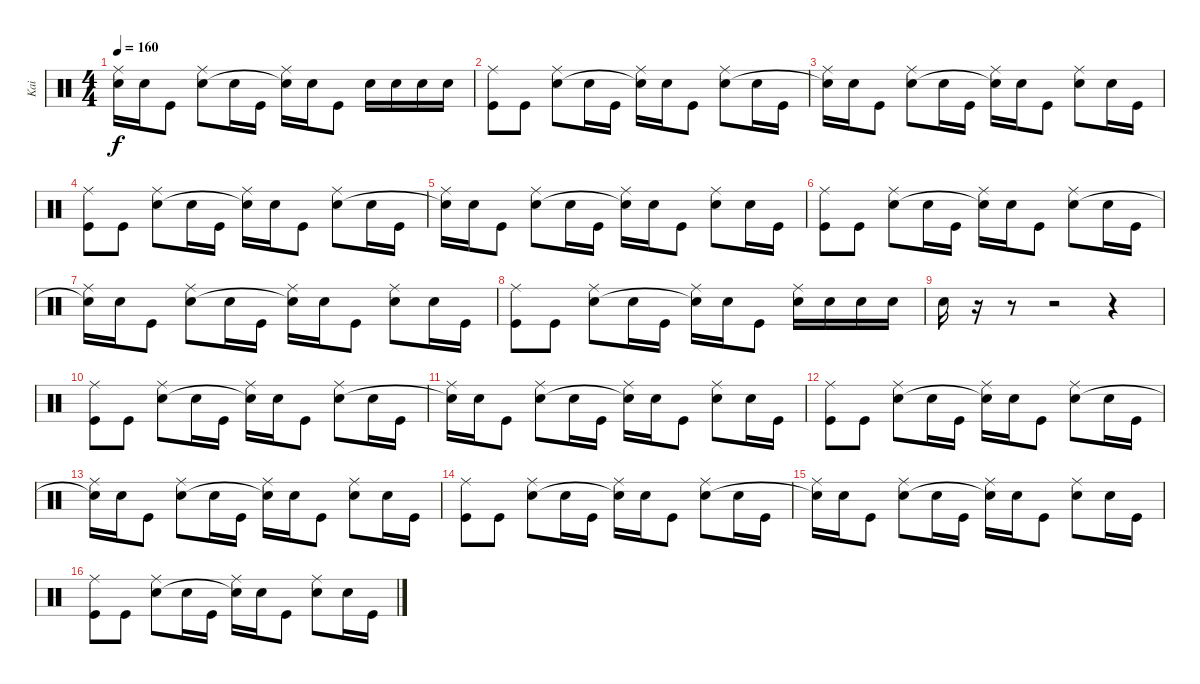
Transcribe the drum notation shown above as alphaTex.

\track ("Kai" "Kai") {instrument percussion}
\staff {score}
\articulation defaults
\ts (4 4)
\tempo 160
\clef neutral
\ks c
("Ride (middle)" "Snare (hit)"{t}).16{dy f} "Snare (hit) 2".16 "Kick (hit)".8 ("Ride (middle)" "Snare (hit) 2").8 "Snare (hit) 2".16 "Kick (hit)".16 ("Ride (middle)" "Snare (hit)"{t}).16 "Snare (hit) 2".16 "Kick (hit)".8 "Snare (hit) 2".16 "Snare (hit) 2".16 "Snare (hit) 2".16 "Snare (hit) 2".16 |
("Ride (middle)" "Kick (hit)").8 "Kick (hit)".8 ("Ride (middle)" "Snare (hit) 2").8 "Snare (hit) 2".16 "Kick (hit)".16 ("Ride (middle)" "Snare (hit)"{t}).16 "Snare (hit) 2".16 "Kick (hit)".8 ("Ride (middle)" "Snare (hit) 2").8 "Snare (hit) 2".16 "Kick (hit)".16 |
("Ride (middle)" "Snare (hit)"{t}).16 "Snare (hit) 2".16 "Kick (hit)".8 ("Ride (middle)" "Snare (hit) 2").8 "Snare (hit) 2".16 "Kick (hit)".16 ("Ride (middle)" "Snare (hit)"{t}).16 "Snare (hit) 2".16 "Kick (hit)".8 ("Ride (middle)" "Snare (hit) 2").8 "Snare (hit) 2".16 "Kick (hit)".16 |
("Ride (middle)" "Kick (hit)").8 "Kick (hit)".8 ("Ride (middle)" "Snare (hit) 2").8 "Snare (hit) 2".16 "Kick (hit)".16 ("Ride (middle)" "Snare (hit)"{t}).16 "Snare (hit) 2".16 "Kick (hit)".8 ("Ride (middle)" "Snare (hit) 2").8 "Snare (hit) 2".16 "Kick (hit)".16 |
("Ride (middle)" "Snare (hit)"{t}).16 "Snare (hit) 2".16 "Kick (hit)".8 ("Ride (middle)" "Snare (hit) 2").8 "Snare (hit) 2".16 "Kick (hit)".16 ("Ride (middle)" "Snare (hit)"{t}).16 "Snare (hit) 2".16 "Kick (hit)".8 ("Ride (middle)" "Snare (hit) 2").8 "Snare (hit) 2".16 "Kick (hit)".16 |
("Ride (middle)" "Kick (hit)").8 "Kick (hit)".8 ("Ride (middle)" "Snare (hit) 2").8 "Snare (hit) 2".16 "Kick (hit)".16 ("Ride (middle)" "Snare (hit)"{t}).16 "Snare (hit) 2".16 "Kick (hit)".8 ("Ride (middle)" "Snare (hit) 2").8 "Snare (hit) 2".16 "Kick (hit)".16 |
("Ride (middle)" "Snare (hit)"{t}).16 "Snare (hit) 2".16 "Kick (hit)".8 ("Ride (middle)" "Snare (hit) 2").8 "Snare (hit) 2".16 "Kick (hit)".16 ("Ride (middle)" "Snare (hit)"{t}).16 "Snare (hit) 2".16 "Kick (hit)".8 ("Ride (middle)" "Snare (hit) 2").8 "Snare (hit) 2".16 "Kick (hit)".16 |
("Ride (middle)" "Kick (hit)").8 "Kick (hit)".8 ("Ride (middle)" "Snare (hit) 2").8 "Snare (hit) 2".16 "Kick (hit)".16 ("Ride (middle)" "Snare (hit)"{t}).16 "Snare (hit) 2".16 "Kick (hit)".8 ("Ride (middle)" "Snare (hit) 2").16 "Snare (hit) 2".16 "Snare (hit) 2".16 "Snare (hit) 2".16 |
"Snare (hit) 2".16 r.16 r.8 r.2 r.4 |
("Ride (middle)" "Kick (hit)").8 "Kick (hit)".8 ("Ride (middle)" "Snare (hit) 2").8 "Snare (hit) 2".16 "Kick (hit)".16 ("Ride (middle)" "Snare (hit)"{t}).16 "Snare (hit) 2".16 "Kick (hit)".8 ("Ride (middle)" "Snare (hit) 2").8 "Snare (hit) 2".16 "Kick (hit)".16 |
("Ride (middle)" "Snare (hit)"{t}).16 "Snare (hit) 2".16 "Kick (hit)".8 ("Ride (middle)" "Snare (hit) 2").8 "Snare (hit) 2".16 "Kick (hit)".16 ("Ride (middle)" "Snare (hit)"{t}).16 "Snare (hit) 2".16 "Kick (hit)".8 ("Ride (middle)" "Snare (hit) 2").8 "Snare (hit) 2".16 "Kick (hit)".16 |
("Ride (middle)" "Kick (hit)").8 "Kick (hit)".8 ("Ride (middle)" "Snare (hit) 2").8 "Snare (hit) 2".16 "Kick (hit)".16 ("Ride (middle)" "Snare (hit)"{t}).16 "Snare (hit) 2".16 "Kick (hit)".8 ("Ride (middle)" "Snare (hit) 2").8 "Snare (hit) 2".16 "Kick (hit)".16 |
("Ride (middle)" "Snare (hit)"{t}).16 "Snare (hit) 2".16 "Kick (hit)".8 ("Ride (middle)" "Snare (hit) 2").8 "Snare (hit) 2".16 "Kick (hit)".16 ("Ride (middle)" "Snare (hit)"{t}).16 "Snare (hit) 2".16 "Kick (hit)".8 ("Ride (middle)" "Snare (hit) 2").8 "Snare (hit) 2".16 "Kick (hit)".16 |
("Ride (middle)" "Kick (hit)").8 "Kick (hit)".8 ("Ride (middle)" "Snare (hit) 2").8 "Snare (hit) 2".16 "Kick (hit)".16 ("Ride (middle)" "Snare (hit)"{t}).16 "Snare (hit) 2".16 "Kick (hit)".8 ("Ride (middle)" "Snare (hit) 2").8 "Snare (hit) 2".16 "Kick (hit)".16 |
("Ride (middle)" "Snare (hit)"{t}).16 "Snare (hit) 2".16 "Kick (hit)".8 ("Ride (middle)" "Snare (hit) 2").8 "Snare (hit) 2".16 "Kick (hit)".16 ("Ride (middle)" "Snare (hit)"{t}).16 "Snare (hit) 2".16 "Kick (hit)".8 ("Ride (middle)" "Snare (hit) 2").8 "Snare (hit) 2".16 "Kick (hit)".16 |
("Ride (middle)" "Kick (hit)").8 "Kick (hit)".8 ("Ride (middle)" "Snare (hit) 2").8 "Snare (hit) 2".16 "Kick (hit)".16 ("Ride (middle)" "Snare (hit)"{t}).16 "Snare (hit) 2".16 "Kick (hit)".8 ("Ride (middle)" "Snare (hit) 2").8 "Snare (hit) 2".16 "Kick (hit)".16
